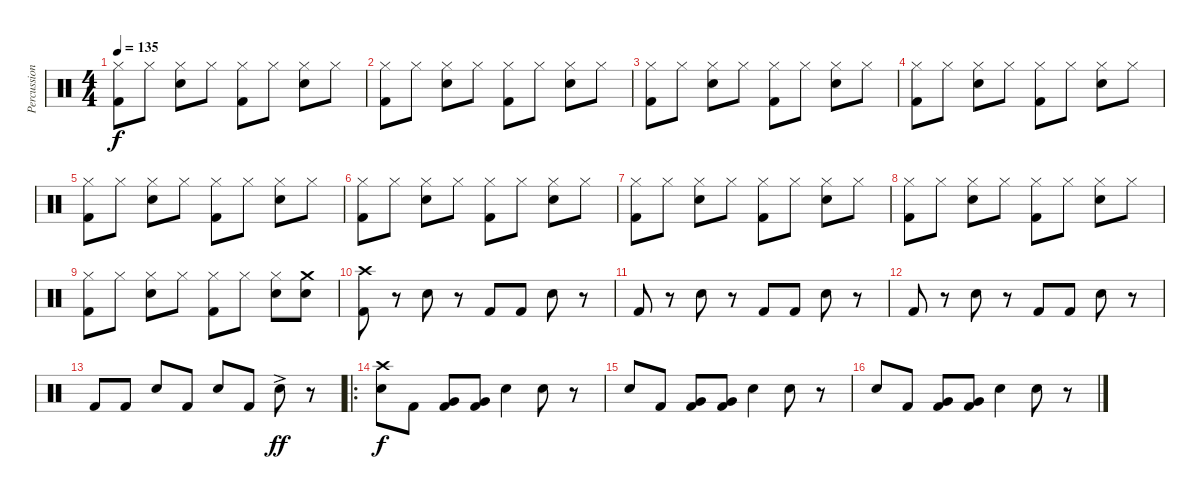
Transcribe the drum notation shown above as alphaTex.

\track ("Percussion" "Percussion") {instrument percussion}
\staff {score}
\articulation defaults
\ts (4 4)
\tempo 135
\clef neutral
\ks c
("Hi-Hat (closed)" "Kick (hit) 2").8{dy f} "Hi-Hat (closed)".8 ("Hi-Hat (closed)" "Snare (hit) 2").8 "Hi-Hat (closed)".8 ("Hi-Hat (closed)" "Kick (hit) 2").8 "Hi-Hat (closed)".8 ("Hi-Hat (closed)" "Snare (hit) 2").8 "Hi-Hat (closed)".8 |
("Hi-Hat (closed)" "Kick (hit) 2").8 "Hi-Hat (closed)".8 ("Hi-Hat (closed)" "Snare (hit) 2").8 "Hi-Hat (closed)".8 ("Hi-Hat (closed)" "Kick (hit) 2").8 "Hi-Hat (closed)".8 ("Hi-Hat (closed)" "Snare (hit) 2").8 "Hi-Hat (closed)".8 |
("Hi-Hat (closed)" "Kick (hit) 2").8 "Hi-Hat (closed)".8 ("Hi-Hat (closed)" "Snare (hit) 2").8 "Hi-Hat (closed)".8 ("Hi-Hat (closed)" "Kick (hit) 2").8 "Hi-Hat (closed)".8 ("Hi-Hat (closed)" "Snare (hit) 2").8 "Hi-Hat (closed)".8 |
("Hi-Hat (closed)" "Kick (hit) 2").8 "Hi-Hat (closed)".8 ("Hi-Hat (closed)" "Snare (hit) 2").8 "Hi-Hat (closed)".8 ("Hi-Hat (closed)" "Kick (hit) 2").8 "Hi-Hat (closed)".8 ("Hi-Hat (closed)" "Snare (hit) 2").8 "Hi-Hat (closed)".8 |
("Hi-Hat (closed)" "Kick (hit) 2").8 "Hi-Hat (closed)".8 ("Hi-Hat (closed)" "Snare (hit) 2").8 "Hi-Hat (closed)".8 ("Hi-Hat (closed)" "Kick (hit) 2").8 "Hi-Hat (closed)".8 ("Hi-Hat (closed)" "Snare (hit) 2").8 "Hi-Hat (closed)".8 |
("Hi-Hat (closed)" "Kick (hit) 2").8 "Hi-Hat (closed)".8 ("Hi-Hat (closed)" "Snare (hit) 2").8 "Hi-Hat (closed)".8 ("Hi-Hat (closed)" "Kick (hit) 2").8 "Hi-Hat (closed)".8 ("Hi-Hat (closed)" "Snare (hit) 2").8 "Hi-Hat (closed)".8 |
("Hi-Hat (closed)" "Kick (hit) 2").8 "Hi-Hat (closed)".8 ("Hi-Hat (closed)" "Snare (hit) 2").8 "Hi-Hat (closed)".8 ("Hi-Hat (closed)" "Kick (hit) 2").8 "Hi-Hat (closed)".8 ("Hi-Hat (closed)" "Snare (hit) 2").8 "Hi-Hat (closed)".8 |
("Hi-Hat (closed)" "Kick (hit) 2").8 "Hi-Hat (closed)".8 ("Hi-Hat (closed)" "Snare (hit) 2").8 "Hi-Hat (closed)".8 ("Hi-Hat (closed)" "Kick (hit) 2").8 "Hi-Hat (closed)".8 ("Hi-Hat (closed)" "Snare (hit) 2").8 "Hi-Hat (closed)".8 |
("Hi-Hat (closed)" "Kick (hit) 2").8 "Hi-Hat (closed)".8 ("Hi-Hat (closed)" "Snare (hit) 2").8 "Hi-Hat (closed)".8 ("Hi-Hat (closed)" "Kick (hit) 2").8 "Hi-Hat (closed)".8 ("Hi-Hat (closed)" "Snare (hit) 2").8 ("Crash medium (hit)" "Snare (hit) 2").8 |
("Crash high (hit)" "Kick (hit) 2").8 r.8 "Snare (hit) 2".8 r.8 "Kick (hit) 2".8 "Kick (hit) 2".8 "Snare (hit) 2".8 r.8 |
"Kick (hit) 2".8 r.8 "Snare (hit) 2".8 r.8 "Kick (hit) 2".8 "Kick (hit) 2".8 "Snare (hit) 2".8 r.8 |
"Kick (hit) 2".8 r.8 "Snare (hit) 2".8 r.8 "Kick (hit) 2".8 "Kick (hit) 2".8 "Snare (hit) 2".8 r.8 |
"Kick (hit) 2".8 "Kick (hit) 2".8 "Snare (hit) 2".8 "Kick (hit) 2".8 "Snare (hit) 2".8 "Kick (hit) 2".8 "Snare (hit) 2"{ac}.8{dy ff} r.8 |
\ro
("Crash high (hit)" "Snare (hit) 2").8{dy f} "Kick (hit) 2".8 ("Very Low Tom (hit)" "Kick (hit) 2").8 ("Very Low Tom (hit)" "Kick (hit) 2").8 "Snare (hit) 2".4 "Snare (hit) 2".8 r.8 |
"Snare (hit) 2".8 "Kick (hit) 2".8 ("Very Low Tom (hit)" "Kick (hit) 2").8 ("Very Low Tom (hit)" "Kick (hit) 2").8 "Snare (hit) 2".4 "Snare (hit) 2".8 r.8 |
"Snare (hit) 2".8 "Kick (hit) 2".8 ("Very Low Tom (hit)" "Kick (hit) 2").8 ("Very Low Tom (hit)" "Kick (hit) 2").8 "Snare (hit) 2".4 "Snare (hit) 2".8 r.8
